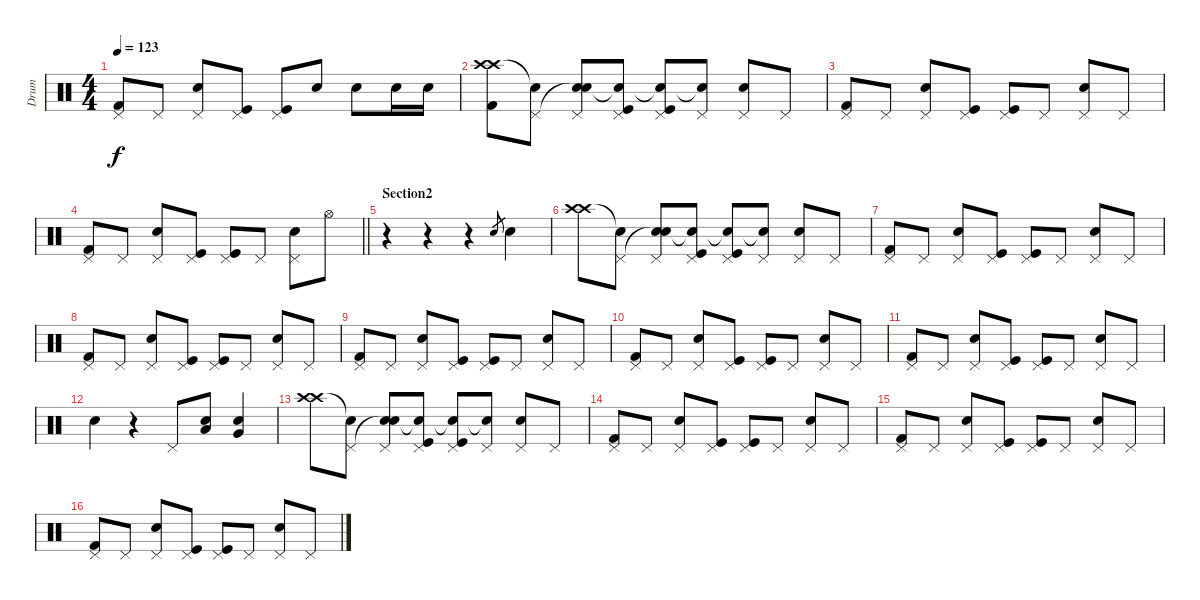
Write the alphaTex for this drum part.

\track ("Drum" "Drum") {instrument percussion}
\staff {score}
\articulation defaults
\ts (4 4)
\tempo 123
\clef neutral
\ks c
("Kick (hit) 2" "Pedal Hi-Hat (hit)").8{dy f} "Pedal Hi-Hat (hit)".8 ("Snare (hit) 2" "Pedal Hi-Hat (hit)").8 ("Kick (hit)" "Pedal Hi-Hat (hit)").8 ("Kick (hit)" "Pedal Hi-Hat (hit)").8 "Electric Snare (hit)".8 "Electric Snare (hit)".8 "Electric Snare (hit)".16 "Electric Snare (hit)".16 |
("Crash high (hit)" "Crash high (hit)" "Kick (hit) 2").8 ("Snare (hit)"{t} "Pedal Hi-Hat (hit)").8 ("Snare (hit) 2" "Snare (hit)"{t} "Pedal Hi-Hat (hit)").8 ("Snare (hit)"{t} "Kick (hit)" "Pedal Hi-Hat (hit)").8 ("Snare (hit)"{t} "Kick (hit)" "Pedal Hi-Hat (hit)").8 ("Snare (hit)"{t} "Pedal Hi-Hat (hit)").8 ("Snare (hit) 2" "Pedal Hi-Hat (hit)").8 "Pedal Hi-Hat (hit)".8 |
("Kick (hit) 2" "Pedal Hi-Hat (hit)").8 "Pedal Hi-Hat (hit)".8 ("Snare (hit) 2" "Pedal Hi-Hat (hit)").8 ("Kick (hit)" "Pedal Hi-Hat (hit)").8 ("Kick (hit)" "Pedal Hi-Hat (hit)").8 "Pedal Hi-Hat (hit)".8 ("Snare (hit) 2" "Pedal Hi-Hat (hit)").8 "Pedal Hi-Hat (hit)".8 |
\barLineRight lightlight
("Kick (hit) 2" "Pedal Hi-Hat (hit)").8 "Pedal Hi-Hat (hit)".8 ("Snare (hit) 2" "Pedal Hi-Hat (hit)").8 ("Kick (hit)" "Pedal Hi-Hat (hit)").8 ("Kick (hit)" "Pedal Hi-Hat (hit)").8 "Pedal Hi-Hat (hit)".8 ("Snare (hit) 2" "Pedal Hi-Hat (hit)").8 "Hi-Hat (open)".8 |
\section ("" "Section2")
r.4 r.4 r.4 "Electric Snare (hit)".8{gr} "Electric Snare (hit)".4 |
("Crash high (hit)" "Crash high (hit)").8 ("Snare (hit)"{t} "Pedal Hi-Hat (hit)").8 ("Snare (hit) 2" "Snare (hit)"{t} "Pedal Hi-Hat (hit)").8 ("Snare (hit)"{t} "Kick (hit)" "Pedal Hi-Hat (hit)").8 ("Snare (hit)"{t} "Kick (hit)" "Pedal Hi-Hat (hit)").8 ("Snare (hit)"{t} "Pedal Hi-Hat (hit)").8 ("Snare (hit) 2" "Pedal Hi-Hat (hit)").8 "Pedal Hi-Hat (hit)".8 |
("Kick (hit) 2" "Pedal Hi-Hat (hit)").8 "Pedal Hi-Hat (hit)".8 ("Snare (hit) 2" "Pedal Hi-Hat (hit)").8 ("Kick (hit)" "Pedal Hi-Hat (hit)").8 ("Kick (hit)" "Pedal Hi-Hat (hit)").8 "Pedal Hi-Hat (hit)".8 ("Snare (hit) 2" "Pedal Hi-Hat (hit)").8 "Pedal Hi-Hat (hit)".8 |
("Kick (hit) 2" "Pedal Hi-Hat (hit)").8 "Pedal Hi-Hat (hit)".8 ("Snare (hit) 2" "Pedal Hi-Hat (hit)").8 ("Kick (hit)" "Pedal Hi-Hat (hit)").8 ("Kick (hit)" "Pedal Hi-Hat (hit)").8 "Pedal Hi-Hat (hit)".8 ("Snare (hit) 2" "Pedal Hi-Hat (hit)").8 "Pedal Hi-Hat (hit)".8 |
("Kick (hit) 2" "Pedal Hi-Hat (hit)").8 "Pedal Hi-Hat (hit)".8 ("Snare (hit) 2" "Pedal Hi-Hat (hit)").8 ("Kick (hit)" "Pedal Hi-Hat (hit)").8 ("Kick (hit)" "Pedal Hi-Hat (hit)").8 "Pedal Hi-Hat (hit)".8 ("Snare (hit) 2" "Pedal Hi-Hat (hit)").8 "Pedal Hi-Hat (hit)".8 |
("Kick (hit) 2" "Pedal Hi-Hat (hit)").8 "Pedal Hi-Hat (hit)".8 ("Snare (hit) 2" "Pedal Hi-Hat (hit)").8 ("Kick (hit)" "Pedal Hi-Hat (hit)").8 ("Kick (hit)" "Pedal Hi-Hat (hit)").8 "Pedal Hi-Hat (hit)".8 ("Snare (hit) 2" "Pedal Hi-Hat (hit)").8 "Pedal Hi-Hat (hit)".8 |
("Kick (hit) 2" "Pedal Hi-Hat (hit)").8 "Pedal Hi-Hat (hit)".8 ("Snare (hit) 2" "Pedal Hi-Hat (hit)").8 ("Kick (hit)" "Pedal Hi-Hat (hit)").8 ("Kick (hit)" "Pedal Hi-Hat (hit)").8 "Pedal Hi-Hat (hit)".8 ("Snare (hit) 2" "Pedal Hi-Hat (hit)").8 "Pedal Hi-Hat (hit)".8 |
"Snare (hit) 2".4 r.4 "Pedal Hi-Hat (hit)".8 ("Electric Snare (hit)" "Low Floor Tom (hit)").8 ("Electric Snare (hit)" "Very Low Tom (hit)").4 |
("Crash high (hit)" "Crash high (hit)").8 ("Snare (hit)"{t} "Pedal Hi-Hat (hit)").8 ("Snare (hit) 2" "Snare (hit)"{t} "Pedal Hi-Hat (hit)").8 ("Snare (hit)"{t} "Kick (hit)" "Pedal Hi-Hat (hit)").8 ("Snare (hit)"{t} "Kick (hit)" "Pedal Hi-Hat (hit)").8 ("Snare (hit)"{t} "Pedal Hi-Hat (hit)").8 ("Snare (hit) 2" "Pedal Hi-Hat (hit)").8 "Pedal Hi-Hat (hit)".8 |
("Kick (hit) 2" "Pedal Hi-Hat (hit)").8 "Pedal Hi-Hat (hit)".8 ("Snare (hit) 2" "Pedal Hi-Hat (hit)").8 ("Kick (hit)" "Pedal Hi-Hat (hit)").8 ("Kick (hit)" "Pedal Hi-Hat (hit)").8 "Pedal Hi-Hat (hit)".8 ("Snare (hit) 2" "Pedal Hi-Hat (hit)").8 "Pedal Hi-Hat (hit)".8 |
("Kick (hit) 2" "Pedal Hi-Hat (hit)").8 "Pedal Hi-Hat (hit)".8 ("Snare (hit) 2" "Pedal Hi-Hat (hit)").8 ("Kick (hit)" "Pedal Hi-Hat (hit)").8 ("Kick (hit)" "Pedal Hi-Hat (hit)").8 "Pedal Hi-Hat (hit)".8 ("Snare (hit) 2" "Pedal Hi-Hat (hit)").8 "Pedal Hi-Hat (hit)".8 |
("Kick (hit) 2" "Pedal Hi-Hat (hit)").8 "Pedal Hi-Hat (hit)".8 ("Snare (hit) 2" "Pedal Hi-Hat (hit)").8 ("Kick (hit)" "Pedal Hi-Hat (hit)").8 ("Kick (hit)" "Pedal Hi-Hat (hit)").8 "Pedal Hi-Hat (hit)".8 ("Snare (hit) 2" "Pedal Hi-Hat (hit)").8 "Pedal Hi-Hat (hit)".8
